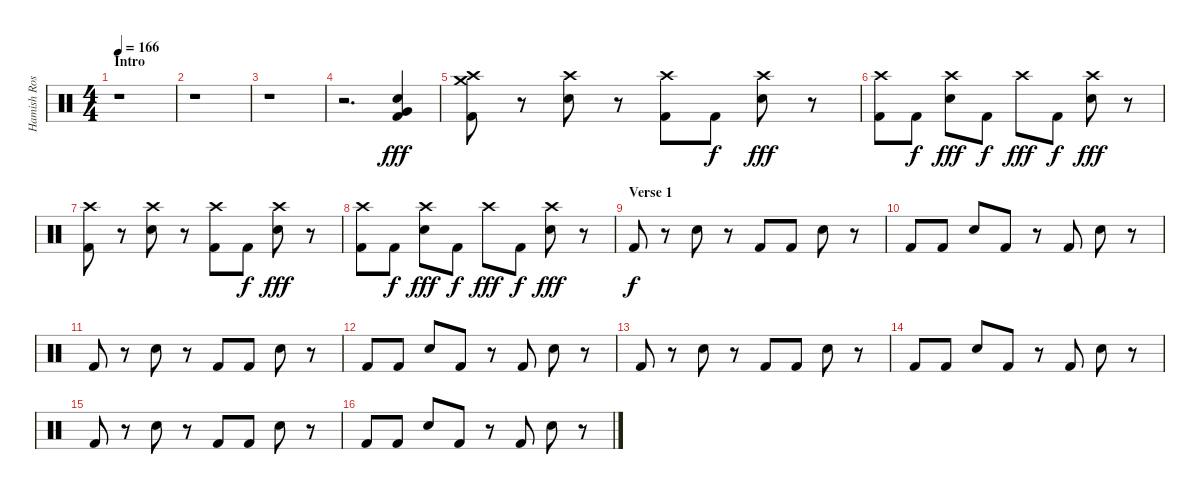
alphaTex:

\track ("Hamish Rosser" "Hamish Ros") {instrument percussion}
\staff {score}
\articulation defaults
\ts (4 4)
\section ("" "Intro")
\tempo 166
\clef neutral
\ks c
r.1{dy fff} |
r.1 |
r.1 |
r.2{d} ("Electric Snare (hit)" "Very Low Tom (hit)" "Kick (hit) 2").4 |
("Crash high (hit)" "Crash medium (hit)" "Kick (hit) 2").8 r.8 ("Crash high (hit)" "Electric Snare (hit)").8 r.8 ("Crash high (hit)" "Kick (hit) 2").8 "Kick (hit) 2".8{dy f} ("Crash high (hit)" "Electric Snare (hit)").8{dy fff} r.8 |
("Crash high (hit)" "Kick (hit) 2").8 "Kick (hit) 2".8{dy f} ("Crash high (hit)" "Electric Snare (hit)").8{dy fff} "Kick (hit) 2".8{dy f} "Crash high (hit)".8{dy fff} "Kick (hit) 2".8{dy f} ("Crash high (hit)" "Electric Snare (hit)").8{dy fff} r.8 |
("Crash high (hit)" "Kick (hit) 2").8 r.8 ("Crash high (hit)" "Electric Snare (hit)").8 r.8 ("Crash high (hit)" "Kick (hit) 2").8 "Kick (hit) 2".8{dy f} ("Crash high (hit)" "Electric Snare (hit)").8{dy fff} r.8 |
("Crash high (hit)" "Kick (hit) 2").8 "Kick (hit) 2".8{dy f} ("Crash high (hit)" "Electric Snare (hit)").8{dy fff} "Kick (hit) 2".8{dy f} "Crash high (hit)".8{dy fff} "Kick (hit) 2".8{dy f} ("Crash high (hit)" "Electric Snare (hit)").8{dy fff} r.8 |
\section ("" "Verse 1 ")
"Kick (hit) 2".8{dy f} r.8 "Electric Snare (hit)".8 r.8 "Kick (hit) 2".8 "Kick (hit) 2".8 "Electric Snare (hit)".8 r.8 |
"Kick (hit) 2".8 "Kick (hit) 2".8 "Electric Snare (hit)".8 "Kick (hit) 2".8 r.8 "Kick (hit) 2".8 "Electric Snare (hit)".8 r.8 |
"Kick (hit) 2".8 r.8 "Electric Snare (hit)".8 r.8 "Kick (hit) 2".8 "Kick (hit) 2".8 "Electric Snare (hit)".8 r.8 |
"Kick (hit) 2".8 "Kick (hit) 2".8 "Electric Snare (hit)".8 "Kick (hit) 2".8 r.8 "Kick (hit) 2".8 "Electric Snare (hit)".8 r.8 |
"Kick (hit) 2".8 r.8 "Electric Snare (hit)".8 r.8 "Kick (hit) 2".8 "Kick (hit) 2".8 "Electric Snare (hit)".8 r.8 |
"Kick (hit) 2".8 "Kick (hit) 2".8 "Electric Snare (hit)".8 "Kick (hit) 2".8 r.8 "Kick (hit) 2".8 "Electric Snare (hit)".8 r.8 |
"Kick (hit) 2".8 r.8 "Electric Snare (hit)".8 r.8 "Kick (hit) 2".8 "Kick (hit) 2".8 "Electric Snare (hit)".8 r.8 |
"Kick (hit) 2".8 "Kick (hit) 2".8 "Electric Snare (hit)".8 "Kick (hit) 2".8 r.8 "Kick (hit) 2".8 "Electric Snare (hit)".8 r.8
